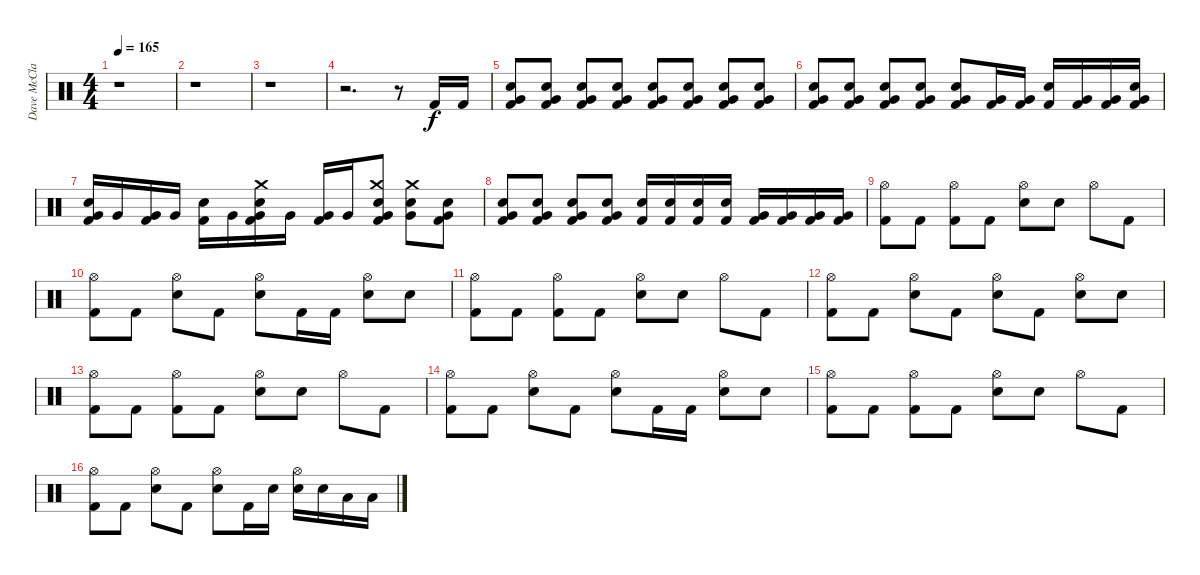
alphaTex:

\track ("Dave McClain" "Dave McCla") {instrument percussion}
\staff {score}
\articulation defaults
\ts (4 4)
\tempo 165
\clef neutral
\ks c
r.1{dy f} |
r.1 |
r.1 |
r.2{d} r.8 "Kick (hit) 2".16 "Kick (hit) 2".16 |
("Electric Snare (hit)" "Very Low Tom (hit)" "Kick (hit) 2").8 ("Electric Snare (hit)" "Very Low Tom (hit)" "Kick (hit) 2").8 ("Electric Snare (hit)" "Very Low Tom (hit)" "Kick (hit) 2").8 ("Electric Snare (hit)" "Very Low Tom (hit)" "Kick (hit) 2").8 ("Electric Snare (hit)" "Very Low Tom (hit)" "Kick (hit) 2").8 ("Electric Snare (hit)" "Very Low Tom (hit)" "Kick (hit) 2").8 ("Electric Snare (hit)" "Very Low Tom (hit)" "Kick (hit) 2").8 ("Electric Snare (hit)" "Very Low Tom (hit)" "Kick (hit) 2").8 |
("Electric Snare (hit)" "Very Low Tom (hit)" "Kick (hit) 2").8 ("Electric Snare (hit)" "Very Low Tom (hit)" "Kick (hit) 2").8 ("Electric Snare (hit)" "Very Low Tom (hit)" "Kick (hit) 2").8 ("Electric Snare (hit)" "Very Low Tom (hit)" "Kick (hit) 2").8 ("Electric Snare (hit)" "Very Low Tom (hit)" "Kick (hit) 2").8 ("Very Low Tom (hit)" "Kick (hit) 2").16 ("Very Low Tom (hit)" "Kick (hit) 2").16 ("Electric Snare (hit)" "Kick (hit) 2").16 ("Very Low Tom (hit)" "Kick (hit) 2").16 ("Very Low Tom (hit)" "Kick (hit) 2").16 ("Electric Snare (hit)" "Very Low Tom (hit)" "Kick (hit) 2").16 |
("Electric Snare (hit)" "Very Low Tom (hit)" "Kick (hit) 2").16 "Very Low Tom (hit)".16 ("Very Low Tom (hit)" "Kick (hit) 2").16 "Very Low Tom (hit)".16 ("Electric Snare (hit)" "Kick (hit) 2").16 "Very Low Tom (hit)".16 ("Crash medium (hit)" "Electric Snare (hit)" "Very Low Tom (hit)" "Kick (hit) 2").16 "Very Low Tom (hit)".16 ("Very Low Tom (hit)" "Kick (hit) 2").16 "Very Low Tom (hit)".16 ("Crash medium (hit)" "Snare (hit) 2" "Very Low Tom (hit)" "Kick (hit) 2").8 ("Crash medium (hit)" "Electric Snare (hit)" "Very Low Tom (hit)").8 ("Electric Snare (hit)" "Very Low Tom (hit)" "Kick (hit) 2").8 |
("Electric Snare (hit)" "Very Low Tom (hit)" "Kick (hit) 2").8 ("Electric Snare (hit)" "Very Low Tom (hit)" "Kick (hit) 2").8 ("Electric Snare (hit)" "Very Low Tom (hit)" "Kick (hit) 2").8 ("Electric Snare (hit)" "Very Low Tom (hit)" "Kick (hit) 2").8 ("Electric Snare (hit)" "Kick (hit) 2").16 ("Electric Snare (hit)" "Kick (hit) 2").16 ("Electric Snare (hit)" "Kick (hit) 2").16 ("Electric Snare (hit)" "Kick (hit) 2").16 ("Very Low Tom (hit)" "Kick (hit) 2").16 ("Very Low Tom (hit)" "Kick (hit) 2").16 ("Very Low Tom (hit)" "Kick (hit) 2").16 ("Very Low Tom (hit)" "Kick (hit) 2").16 |
("Hi-Hat (open)" "Kick (hit) 2").8 "Kick (hit) 2".8 ("Hi-Hat (open)" "Kick (hit) 2").8 "Kick (hit) 2".8 ("Hi-Hat (open)" "Electric Snare (hit)").8 "Electric Snare (hit)".8 "Hi-Hat (open)".8 "Kick (hit) 2".8 |
("Hi-Hat (open)" "Kick (hit) 2").8 "Kick (hit) 2".8 ("Hi-Hat (open)" "Electric Snare (hit)").8 "Kick (hit) 2".8 ("Hi-Hat (open)" "Electric Snare (hit)").8 "Kick (hit) 2".16 "Kick (hit) 2".16 ("Hi-Hat (open)" "Electric Snare (hit)").8 "Electric Snare (hit)".8 |
("Hi-Hat (open)" "Kick (hit) 2").8 "Kick (hit) 2".8 ("Hi-Hat (open)" "Kick (hit) 2").8 "Kick (hit) 2".8 ("Hi-Hat (open)" "Electric Snare (hit)").8 "Electric Snare (hit)".8 "Hi-Hat (open)".8 "Kick (hit) 2".8 |
("Hi-Hat (open)" "Kick (hit) 2").8 "Kick (hit) 2".8 ("Hi-Hat (open)" "Electric Snare (hit)").8 "Kick (hit) 2".8 ("Hi-Hat (open)" "Electric Snare (hit)").8 "Kick (hit) 2".8 ("Hi-Hat (open)" "Electric Snare (hit)").8 "Electric Snare (hit)".8 |
("Hi-Hat (open)" "Kick (hit) 2").8 "Kick (hit) 2".8 ("Hi-Hat (open)" "Kick (hit) 2").8 "Kick (hit) 2".8 ("Hi-Hat (open)" "Electric Snare (hit)").8 "Electric Snare (hit)".8 "Hi-Hat (open)".8 "Kick (hit) 2".8 |
("Hi-Hat (open)" "Kick (hit) 2").8 "Kick (hit) 2".8 ("Hi-Hat (open)" "Electric Snare (hit)").8 "Kick (hit) 2".8 ("Hi-Hat (open)" "Electric Snare (hit)").8 "Kick (hit) 2".16 "Kick (hit) 2".16 ("Hi-Hat (open)" "Electric Snare (hit)").8 "Electric Snare (hit)".8 |
("Hi-Hat (open)" "Kick (hit) 2").8 "Kick (hit) 2".8 ("Hi-Hat (open)" "Kick (hit) 2").8 "Kick (hit) 2".8 ("Hi-Hat (open)" "Electric Snare (hit)").8 "Electric Snare (hit)".8 "Hi-Hat (open)".8 "Kick (hit) 2".8 |
("Hi-Hat (open)" "Kick (hit) 2").8 "Kick (hit) 2".8 ("Hi-Hat (open)" "Electric Snare (hit)").8 "Kick (hit) 2".8 ("Hi-Hat (open)" "Electric Snare (hit)").8 "Kick (hit) 2".16 "Electric Snare (hit)".16 ("Hi-Hat (open)" "Electric Snare (hit)").16 "Electric Snare (hit)".16 "Low Tom (hit)".16 "Low Tom (hit)".16
